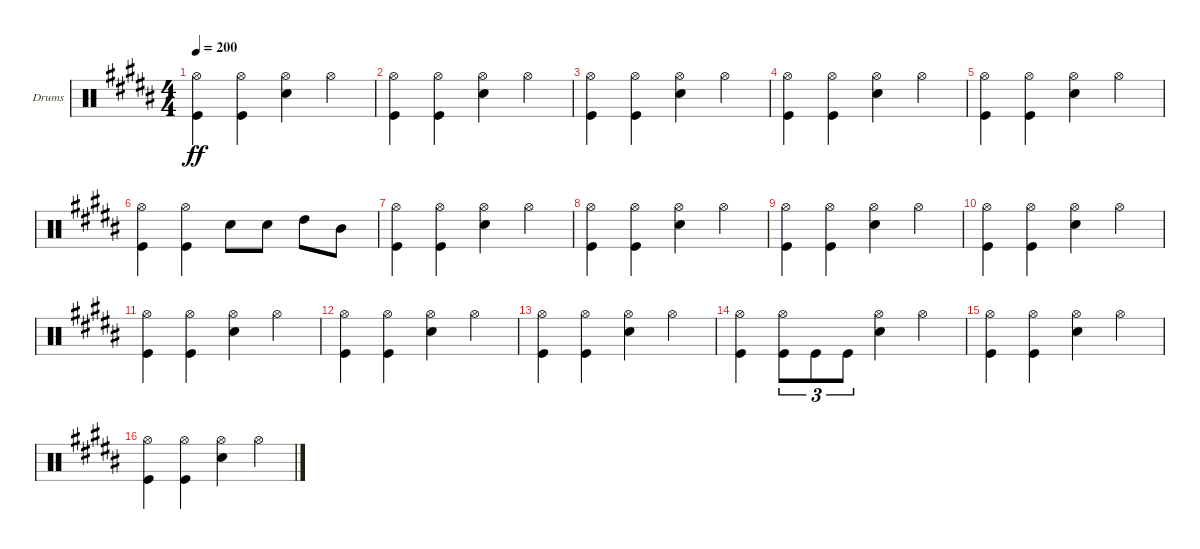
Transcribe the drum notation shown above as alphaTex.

\defaultSystemsLayout 4
\bracketExtendMode groupsimilarinstruments
\firstSystemTrackNameOrientation horizontal
\otherSystemsTrackNameOrientation horizontal
\track ("Drumkit" "Drums") {instrument percussion}
\staff {score}
\articulation defaults
\ts (4 4)
\tempo 200
\clef neutral
\ks b
("Hi-Hat (open)" "Kick (hit)").4{dy ff} ("Hi-Hat (open)" "Kick (hit)").4 ("Hi-Hat (open)" "Snare (hit) 2").4 "Hi-Hat (open)".4 |
("Hi-Hat (open)" "Kick (hit)").4 ("Hi-Hat (open)" "Kick (hit)").4 ("Hi-Hat (open)" "Snare (hit) 2").4 "Hi-Hat (open)".4 |
("Hi-Hat (open)" "Kick (hit)").4 ("Hi-Hat (open)" "Kick (hit)").4 ("Hi-Hat (open)" "Snare (hit) 2").4 "Hi-Hat (open)".4 |
("Hi-Hat (open)" "Kick (hit)").4 ("Hi-Hat (open)" "Kick (hit)").4 ("Hi-Hat (open)" "Snare (hit) 2").4 "Hi-Hat (open)".4 |
("Hi-Hat (open)" "Kick (hit)").4 ("Hi-Hat (open)" "Kick (hit)").4 ("Hi-Hat (open)" "Snare (hit) 2").4 "Hi-Hat (open)".4 |
("Hi-Hat (open)" "Kick (hit)").4 ("Hi-Hat (open)" "Kick (hit)").4 "Snare (hit) 2".8 "Snare (hit) 2".8 "High Tom (hit)".8 "Mid Tom (hit)".8 |
("Hi-Hat (open)" "Kick (hit)").4 ("Hi-Hat (open)" "Kick (hit)").4 ("Hi-Hat (open)" "Snare (hit) 2").4 "Hi-Hat (open)".4 |
("Hi-Hat (open)" "Kick (hit)").4 ("Hi-Hat (open)" "Kick (hit)").4 ("Hi-Hat (open)" "Snare (hit) 2").4 "Hi-Hat (open)".4 |
("Hi-Hat (open)" "Kick (hit)").4 ("Hi-Hat (open)" "Kick (hit)").4 ("Hi-Hat (open)" "Snare (hit) 2").4 "Hi-Hat (open)".4 |
("Hi-Hat (open)" "Kick (hit)").4 ("Hi-Hat (open)" "Kick (hit)").4 ("Hi-Hat (open)" "Snare (hit) 2").4 "Hi-Hat (open)".4 |
("Hi-Hat (open)" "Kick (hit)").4 ("Hi-Hat (open)" "Kick (hit)").4 ("Hi-Hat (open)" "Snare (hit) 2").4 "Hi-Hat (open)".4 |
("Hi-Hat (open)" "Kick (hit)").4 ("Hi-Hat (open)" "Kick (hit)").4 ("Hi-Hat (open)" "Snare (hit) 2").4 "Hi-Hat (open)".4 |
("Hi-Hat (open)" "Kick (hit)").4 ("Hi-Hat (open)" "Kick (hit)").4 ("Hi-Hat (open)" "Snare (hit) 2").4 "Hi-Hat (open)".4 |
("Hi-Hat (open)" "Kick (hit)").4 ("Hi-Hat (open)" "Kick (hit)").8{tu (3 2)} "Kick (hit)".8{tu (3 2)} "Kick (hit)".8{tu (3 2)} ("Hi-Hat (open)" "Snare (hit) 2").4 "Hi-Hat (open)".4 |
("Hi-Hat (open)" "Kick (hit)").4 ("Hi-Hat (open)" "Kick (hit)").4 ("Hi-Hat (open)" "Snare (hit) 2").4 "Hi-Hat (open)".4 |
("Hi-Hat (open)" "Kick (hit)").4 ("Hi-Hat (open)" "Kick (hit)").4 ("Hi-Hat (open)" "Snare (hit) 2").4 "Hi-Hat (open)".4
